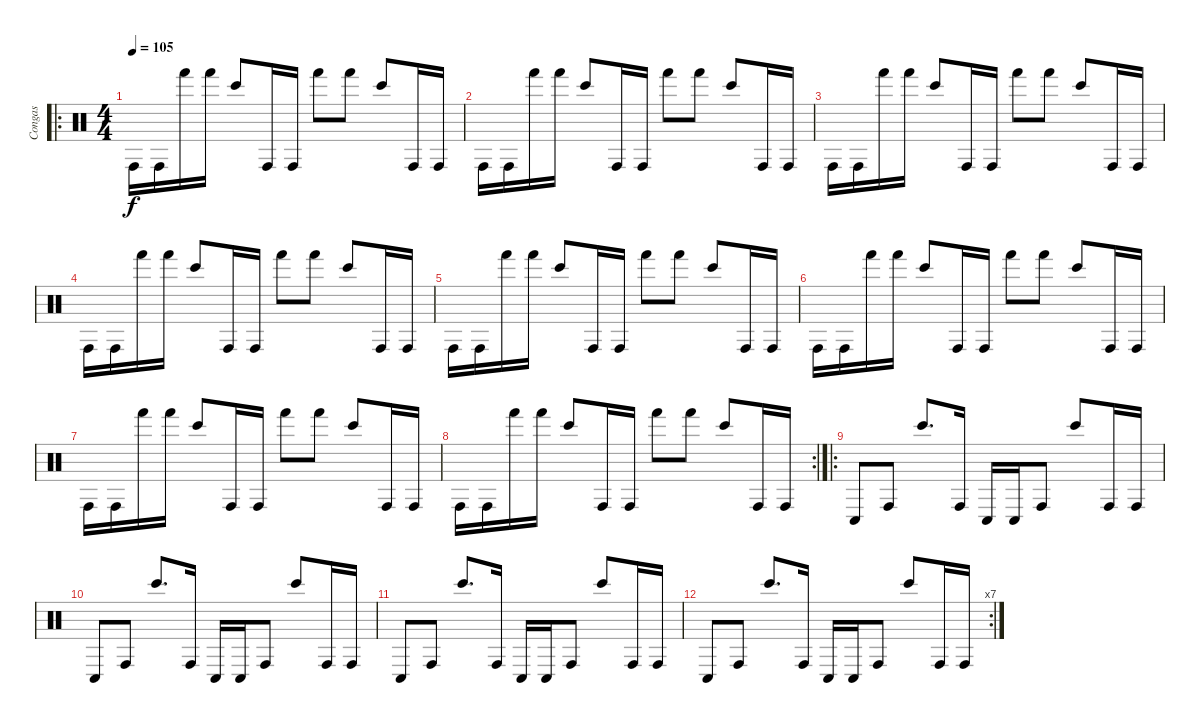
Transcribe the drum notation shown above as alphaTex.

\track ("Congas" "Congas") {instrument percussion}
\staff {score}
\articulation defaults
\ro
\ts (4 4)
\tempo 105
\clef neutral
\ks c "Conga high (hit)".16{dy f} "Conga high (hit)".16 "Hand (hit)".16 "Hand (hit)".16 "Bongo High (hit)".8 "Conga high (hit)".16 "Conga high (hit)".16 "Hand (hit)".8 "Hand (hit)".8 "Bongo High (hit)".8 "Conga high (hit)".16 "Conga high (hit)".16
|
"Conga high (hit)".16 "Conga high (hit)".16 "Hand (hit)".16 "Hand (hit)".16 "Bongo High (hit)".8 "Conga high (hit)".16 "Conga high (hit)".16 "Hand (hit)".8 "Hand (hit)".8 "Bongo High (hit)".8 "Conga high (hit)".16 "Conga high (hit)".16 |
"Conga high (hit)".16 "Conga high (hit)".16 "Hand (hit)".16 "Hand (hit)".16 "Bongo High (hit)".8 "Conga high (hit)".16 "Conga high (hit)".16 "Hand (hit)".8 "Hand (hit)".8 "Bongo High (hit)".8 "Conga high (hit)".16 "Conga high (hit)".16 |
"Conga high (hit)".16 "Conga high (hit)".16 "Hand (hit)".16 "Hand (hit)".16 "Bongo High (hit)".8 "Conga high (hit)".16 "Conga high (hit)".16 "Hand (hit)".8 "Hand (hit)".8 "Bongo High (hit)".8 "Conga high (hit)".16 "Conga high (hit)".16 |
"Conga high (hit)".16 "Conga high (hit)".16 "Hand (hit)".16 "Hand (hit)".16 "Bongo High (hit)".8 "Conga high (hit)".16 "Conga high (hit)".16 "Hand (hit)".8 "Hand (hit)".8 "Bongo High (hit)".8 "Conga high (hit)".16 "Conga high (hit)".16 |
"Conga high (hit)".16 "Conga high (hit)".16 "Hand (hit)".16 "Hand (hit)".16 "Bongo High (hit)".8 "Conga high (hit)".16 "Conga high (hit)".16 "Hand (hit)".8 "Hand (hit)".8 "Bongo High (hit)".8 "Conga high (hit)".16 "Conga high (hit)".16 |
"Conga high (hit)".16 "Conga high (hit)".16 "Hand (hit)".16 "Hand (hit)".16 "Bongo High (hit)".8 "Conga high (hit)".16 "Conga high (hit)".16 "Hand (hit)".8 "Hand (hit)".8 "Bongo High (hit)".8 "Conga high (hit)".16 "Conga high (hit)".16 |
\rc 2 "Conga high (hit)".16 "Conga high (hit)".16 "Hand (hit)".16 "Hand (hit)".16 "Bongo High (hit)".8 "Conga high (hit)".16 "Conga high (hit)".16 "Hand (hit)".8 "Hand (hit)".8 "Bongo High (hit)".8 "Conga high (hit)".16 "Conga high (hit)".16
|
\ro "Conga low (hit)".8 "Conga high (hit)".8 "Bongo High (hit)".8{d} "Conga high (hit)".16 "Conga low (hit)".16 "Conga low (hit)".16 "Conga high (hit)".8 "Bongo High (hit)".8 "Conga high (hit)".16 "Conga high (hit)".16
|
"Conga low (hit)".8 "Conga high (hit)".8 "Bongo High (hit)".8{d} "Conga high (hit)".16 "Conga low (hit)".16 "Conga low (hit)".16 "Conga high (hit)".8 "Bongo High (hit)".8 "Conga high (hit)".16 "Conga high (hit)".16 |
"Conga low (hit)".8 "Conga high (hit)".8 "Bongo High (hit)".8{d} "Conga high (hit)".16 "Conga low (hit)".16 "Conga low (hit)".16 "Conga high (hit)".8 "Bongo High (hit)".8 "Conga high (hit)".16 "Conga high (hit)".16 |
\rc 7 "Conga low (hit)".8 "Conga high (hit)".8 "Bongo High (hit)".8{d} "Conga high (hit)".16 "Conga low (hit)".16 "Conga low (hit)".16 "Conga high (hit)".8 "Bongo High (hit)".8 "Conga high (hit)".16 "Conga high (hit)".16
